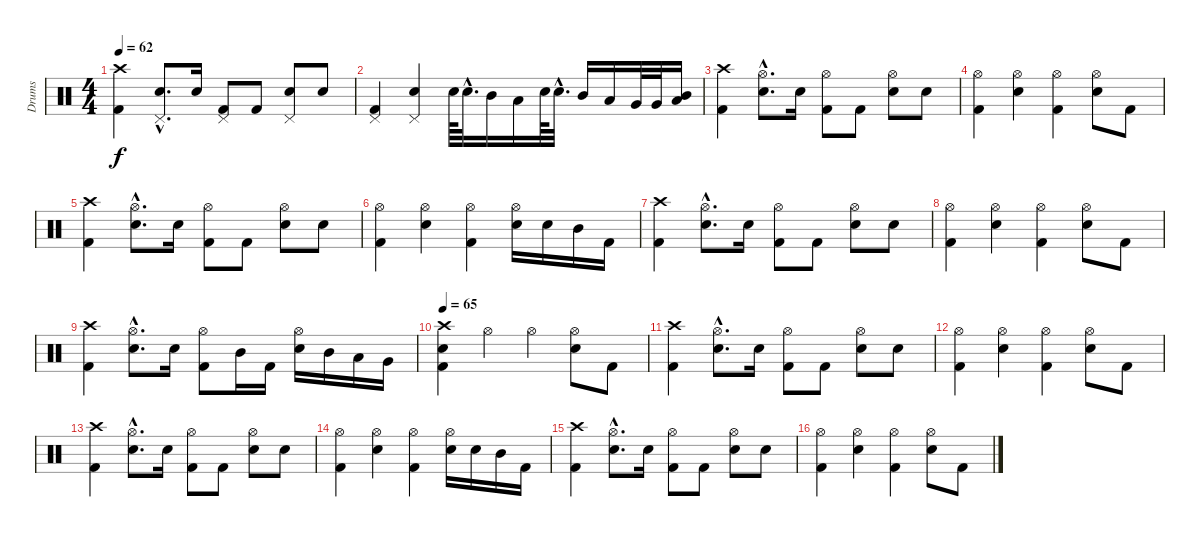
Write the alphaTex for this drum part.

\track ("Drums" "Drums") {instrument percussion}
\staff {score}
\articulation defaults
\ts (4 4)
\tempo 62
\clef neutral
\ks c
("Crash high (hit)" "Kick (hit) 2").4{dy f} ("Pedal Hi-Hat (hit)"{hac} "Snare (hit) 2"{hac}).8{d} "Snare (hit) 2".16 ("Pedal Hi-Hat (hit)" "Kick (hit) 2").8 "Kick (hit) 2".8 ("Pedal Hi-Hat (hit)" "Snare (hit) 2").8 "Snare (hit) 2".8 |
("Pedal Hi-Hat (hit)" "Kick (hit) 2").4 ("Pedal Hi-Hat (hit)" "Snare (hit) 2").4 "Snare (hit) 2".64 "Snare (hit) 2"{hac}.32{d} "Mid Tom (hit)".16 "Low Tom (hit)".16 "Snare (hit) 2".64 "Snare (hit) 2"{hac}.32{d} "Mid Tom (hit)".16 "Low Tom (hit)".16 "Very Low Tom (hit)".32 "Very Low Tom (hit)".32 ("Low Tom (hit)" "Mid Tom (hit)").16 |
("Crash high (hit)" "Kick (hit) 2").4 ("Hi-Hat (open)"{hac} "Snare (hit) 2"{hac}).8{d} "Snare (hit) 2".16 ("Hi-Hat (open)" "Kick (hit) 2").8 "Kick (hit) 2".8 ("Hi-Hat (open)" "Snare (hit) 2").8 "Snare (hit) 2".8 |
("Hi-Hat (open)" "Kick (hit) 2").4 ("Hi-Hat (open)" "Snare (hit) 2").4 ("Hi-Hat (open)" "Kick (hit) 2").4 ("Hi-Hat (open)" "Snare (hit) 2").8 "Kick (hit) 2".8 |
("Crash high (hit)" "Kick (hit) 2").4 ("Hi-Hat (open)"{hac} "Snare (hit) 2"{hac}).8{d} "Snare (hit) 2".16 ("Hi-Hat (open)" "Kick (hit) 2").8 "Kick (hit) 2".8 ("Hi-Hat (open)" "Snare (hit) 2").8 "Snare (hit) 2".8 |
("Hi-Hat (open)" "Kick (hit) 2").4 ("Hi-Hat (open)" "Snare (hit) 2").4 ("Hi-Hat (open)" "Kick (hit) 2").4 ("Hi-Hat (open)" "Snare (hit) 2").16 "Snare (hit) 2".16 "Mid Tom (hit)".16 "Kick (hit) 2".16 |
("Crash high (hit)" "Kick (hit) 2").4 ("Hi-Hat (open)"{hac} "Snare (hit) 2"{hac}).8{d} "Snare (hit) 2".16 ("Hi-Hat (open)" "Kick (hit) 2").8 "Kick (hit) 2".8 ("Hi-Hat (open)" "Snare (hit) 2").8 "Snare (hit) 2".8 |
("Hi-Hat (open)" "Kick (hit) 2").4 ("Hi-Hat (open)" "Snare (hit) 2").4 ("Hi-Hat (open)" "Kick (hit) 2").4 ("Hi-Hat (open)" "Snare (hit) 2").8 "Kick (hit) 2".8 |
("Crash high (hit)" "Kick (hit) 2").4 ("Hi-Hat (open)"{hac} "Snare (hit) 2"{hac}).8{d} "Snare (hit) 2".16 ("Hi-Hat (open)" "Kick (hit) 2").8 "Mid Tom (hit)".16 "Kick (hit) 2".16 ("Hi-Hat (open)" "Snare (hit) 2").16 "Mid Tom (hit)".16 "Low Tom (hit)".16 "Very Low Tom (hit)".16 |
\tempo 65
("Crash high (hit)" "Snare (hit) 2" "Kick (hit) 2").4 "Hi-Hat (open)".4 "Hi-Hat (open)".4 ("Hi-Hat (open)" "Snare (hit) 2").8 "Kick (hit) 2".8 |
("Crash high (hit)" "Kick (hit) 2").4 ("Hi-Hat (open)"{hac} "Snare (hit) 2"{hac}).8{d} "Snare (hit) 2".16 ("Hi-Hat (open)" "Kick (hit) 2").8 "Kick (hit) 2".8 ("Hi-Hat (open)" "Snare (hit) 2").8 "Snare (hit) 2".8 |
("Hi-Hat (open)" "Kick (hit) 2").4 ("Hi-Hat (open)" "Snare (hit) 2").4 ("Hi-Hat (open)" "Kick (hit) 2").4 ("Hi-Hat (open)" "Snare (hit) 2").8 "Kick (hit) 2".8 |
("Crash high (hit)" "Kick (hit) 2").4 ("Hi-Hat (open)"{hac} "Snare (hit) 2"{hac}).8{d} "Snare (hit) 2".16 ("Hi-Hat (open)" "Kick (hit) 2").8 "Kick (hit) 2".8 ("Hi-Hat (open)" "Snare (hit) 2").8 "Snare (hit) 2".8 |
("Hi-Hat (open)" "Kick (hit) 2").4 ("Hi-Hat (open)" "Snare (hit) 2").4 ("Hi-Hat (open)" "Kick (hit) 2").4 ("Hi-Hat (open)" "Snare (hit) 2").16 "Snare (hit) 2".16 "Mid Tom (hit)".16 "Kick (hit) 2".16 |
("Crash high (hit)" "Kick (hit) 2").4 ("Hi-Hat (open)"{hac} "Snare (hit) 2"{hac}).8{d} "Snare (hit) 2".16 ("Hi-Hat (open)" "Kick (hit) 2").8 "Kick (hit) 2".8 ("Hi-Hat (open)" "Snare (hit) 2").8 "Snare (hit) 2".8 |
("Hi-Hat (open)" "Kick (hit) 2").4 ("Hi-Hat (open)" "Snare (hit) 2").4 ("Hi-Hat (open)" "Kick (hit) 2").4 ("Hi-Hat (open)" "Snare (hit) 2").8 "Kick (hit) 2".8
